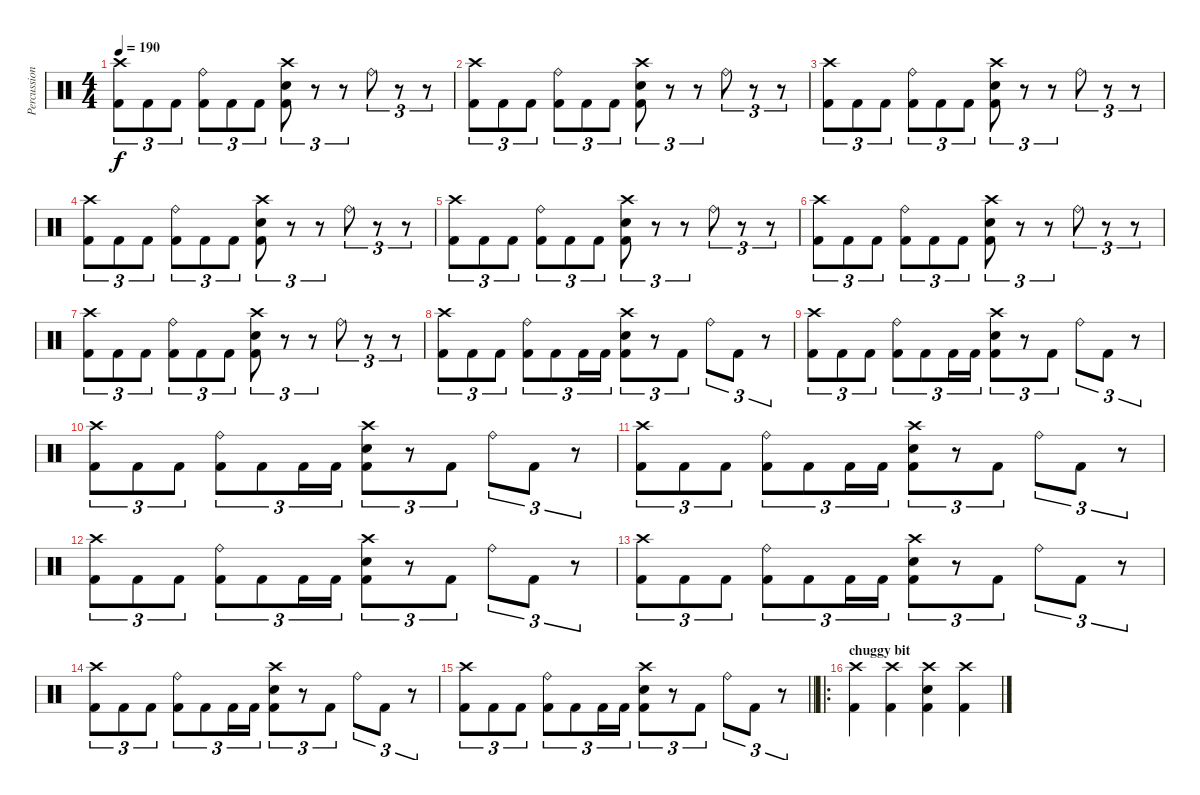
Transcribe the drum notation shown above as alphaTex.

\track ("Percussion" "Percussion") {instrument percussion}
\staff {score}
\articulation defaults
\ts (4 4)
\tempo 190
\clef neutral
\ks c
("Crash high (hit)" "Kick (hit) 2").8{tu (3 2) dy f} "Kick (hit) 2".8{tu (3 2)} "Kick (hit) 2".8{tu (3 2)} ("Ride (bell)" "Kick (hit) 2").8{tu (3 2)} "Kick (hit) 2".8{tu (3 2)} "Kick (hit) 2".8{tu (3 2)} ("Crash high (hit)" "Electric Snare (hit)" "Kick (hit) 2").8{tu (3 2)} r.8{tu (3 2)} r.8{tu (3 2)} "Ride (bell)".8{tu (3 2)} r.8{tu (3 2)} r.8{tu (3 2)} |
("Crash high (hit)" "Kick (hit) 2").8{tu (3 2)} "Kick (hit) 2".8{tu (3 2)} "Kick (hit) 2".8{tu (3 2)} ("Ride (bell)" "Kick (hit) 2").8{tu (3 2)} "Kick (hit) 2".8{tu (3 2)} "Kick (hit) 2".8{tu (3 2)} ("Crash high (hit)" "Electric Snare (hit)" "Kick (hit) 2").8{tu (3 2)} r.8{tu (3 2)} r.8{tu (3 2)} "Ride (bell)".8{tu (3 2)} r.8{tu (3 2)} r.8{tu (3 2)} |
("Crash high (hit)" "Kick (hit) 2").8{tu (3 2)} "Kick (hit) 2".8{tu (3 2)} "Kick (hit) 2".8{tu (3 2)} ("Ride (bell)" "Kick (hit) 2").8{tu (3 2)} "Kick (hit) 2".8{tu (3 2)} "Kick (hit) 2".8{tu (3 2)} ("Crash high (hit)" "Electric Snare (hit)" "Kick (hit) 2").8{tu (3 2)} r.8{tu (3 2)} r.8{tu (3 2)} "Ride (bell)".8{tu (3 2)} r.8{tu (3 2)} r.8{tu (3 2)} |
("Crash high (hit)" "Kick (hit) 2").8{tu (3 2)} "Kick (hit) 2".8{tu (3 2)} "Kick (hit) 2".8{tu (3 2)} ("Ride (bell)" "Kick (hit) 2").8{tu (3 2)} "Kick (hit) 2".8{tu (3 2)} "Kick (hit) 2".8{tu (3 2)} ("Crash high (hit)" "Electric Snare (hit)" "Kick (hit) 2").8{tu (3 2)} r.8{tu (3 2)} r.8{tu (3 2)} "Ride (bell)".8{tu (3 2)} r.8{tu (3 2)} r.8{tu (3 2)} |
("Crash high (hit)" "Kick (hit) 2").8{tu (3 2)} "Kick (hit) 2".8{tu (3 2)} "Kick (hit) 2".8{tu (3 2)} ("Ride (bell)" "Kick (hit) 2").8{tu (3 2)} "Kick (hit) 2".8{tu (3 2)} "Kick (hit) 2".8{tu (3 2)} ("Crash high (hit)" "Electric Snare (hit)" "Kick (hit) 2").8{tu (3 2)} r.8{tu (3 2)} r.8{tu (3 2)} "Ride (bell)".8{tu (3 2)} r.8{tu (3 2)} r.8{tu (3 2)} |
("Crash high (hit)" "Kick (hit) 2").8{tu (3 2)} "Kick (hit) 2".8{tu (3 2)} "Kick (hit) 2".8{tu (3 2)} ("Ride (bell)" "Kick (hit) 2").8{tu (3 2)} "Kick (hit) 2".8{tu (3 2)} "Kick (hit) 2".8{tu (3 2)} ("Crash high (hit)" "Electric Snare (hit)" "Kick (hit) 2").8{tu (3 2)} r.8{tu (3 2)} r.8{tu (3 2)} "Ride (bell)".8{tu (3 2)} r.8{tu (3 2)} r.8{tu (3 2)} |
("Crash high (hit)" "Kick (hit) 2").8{tu (3 2)} "Kick (hit) 2".8{tu (3 2)} "Kick (hit) 2".8{tu (3 2)} ("Ride (bell)" "Kick (hit) 2").8{tu (3 2)} "Kick (hit) 2".8{tu (3 2)} "Kick (hit) 2".8{tu (3 2)} ("Crash high (hit)" "Electric Snare (hit)" "Kick (hit) 2").8{tu (3 2)} r.8{tu (3 2)} r.8{tu (3 2)} "Ride (bell)".8{tu (3 2)} r.8{tu (3 2)} r.8{tu (3 2)} |
("Crash high (hit)" "Kick (hit) 2").8{tu (3 2)} "Kick (hit) 2".8{tu (3 2)} "Kick (hit) 2".8{tu (3 2)} ("Ride (bell)" "Kick (hit) 2").8{tu (3 2)} "Kick (hit) 2".8{tu (3 2)} "Kick (hit) 2".16{tu (3 2)} "Kick (hit) 2".16{tu (3 2)} ("Crash high (hit)" "Electric Snare (hit)" "Kick (hit) 2").8{tu (3 2)} r.8{tu (3 2)} "Kick (hit) 2".8{tu (3 2)} "Ride (bell)".8{tu (3 2)} "Kick (hit) 2".8{tu (3 2)} r.8{tu (3 2)} |
("Crash high (hit)" "Kick (hit) 2").8{tu (3 2)} "Kick (hit) 2".8{tu (3 2)} "Kick (hit) 2".8{tu (3 2)} ("Ride (bell)" "Kick (hit) 2").8{tu (3 2)} "Kick (hit) 2".8{tu (3 2)} "Kick (hit) 2".16{tu (3 2)} "Kick (hit) 2".16{tu (3 2)} ("Crash high (hit)" "Electric Snare (hit)" "Kick (hit) 2").8{tu (3 2)} r.8{tu (3 2)} "Kick (hit) 2".8{tu (3 2)} "Ride (bell)".8{tu (3 2)} "Kick (hit) 2".8{tu (3 2)} r.8{tu (3 2)} |
("Crash high (hit)" "Kick (hit) 2").8{tu (3 2)} "Kick (hit) 2".8{tu (3 2)} "Kick (hit) 2".8{tu (3 2)} ("Ride (bell)" "Kick (hit) 2").8{tu (3 2)} "Kick (hit) 2".8{tu (3 2)} "Kick (hit) 2".16{tu (3 2)} "Kick (hit) 2".16{tu (3 2)} ("Crash high (hit)" "Electric Snare (hit)" "Kick (hit) 2").8{tu (3 2)} r.8{tu (3 2)} "Kick (hit) 2".8{tu (3 2)} "Ride (bell)".8{tu (3 2)} "Kick (hit) 2".8{tu (3 2)} r.8{tu (3 2)} |
("Crash high (hit)" "Kick (hit) 2").8{tu (3 2)} "Kick (hit) 2".8{tu (3 2)} "Kick (hit) 2".8{tu (3 2)} ("Ride (bell)" "Kick (hit) 2").8{tu (3 2)} "Kick (hit) 2".8{tu (3 2)} "Kick (hit) 2".16{tu (3 2)} "Kick (hit) 2".16{tu (3 2)} ("Crash high (hit)" "Electric Snare (hit)" "Kick (hit) 2").8{tu (3 2)} r.8{tu (3 2)} "Kick (hit) 2".8{tu (3 2)} "Ride (bell)".8{tu (3 2)} "Kick (hit) 2".8{tu (3 2)} r.8{tu (3 2)} |
("Crash high (hit)" "Kick (hit) 2").8{tu (3 2)} "Kick (hit) 2".8{tu (3 2)} "Kick (hit) 2".8{tu (3 2)} ("Ride (bell)" "Kick (hit) 2").8{tu (3 2)} "Kick (hit) 2".8{tu (3 2)} "Kick (hit) 2".16{tu (3 2)} "Kick (hit) 2".16{tu (3 2)} ("Crash high (hit)" "Electric Snare (hit)" "Kick (hit) 2").8{tu (3 2)} r.8{tu (3 2)} "Kick (hit) 2".8{tu (3 2)} "Ride (bell)".8{tu (3 2)} "Kick (hit) 2".8{tu (3 2)} r.8{tu (3 2)} |
("Crash high (hit)" "Kick (hit) 2").8{tu (3 2)} "Kick (hit) 2".8{tu (3 2)} "Kick (hit) 2".8{tu (3 2)} ("Ride (bell)" "Kick (hit) 2").8{tu (3 2)} "Kick (hit) 2".8{tu (3 2)} "Kick (hit) 2".16{tu (3 2)} "Kick (hit) 2".16{tu (3 2)} ("Crash high (hit)" "Electric Snare (hit)" "Kick (hit) 2").8{tu (3 2)} r.8{tu (3 2)} "Kick (hit) 2".8{tu (3 2)} "Ride (bell)".8{tu (3 2)} "Kick (hit) 2".8{tu (3 2)} r.8{tu (3 2)} |
("Crash high (hit)" "Kick (hit) 2").8{tu (3 2)} "Kick (hit) 2".8{tu (3 2)} "Kick (hit) 2".8{tu (3 2)} ("Ride (bell)" "Kick (hit) 2").8{tu (3 2)} "Kick (hit) 2".8{tu (3 2)} "Kick (hit) 2".16{tu (3 2)} "Kick (hit) 2".16{tu (3 2)} ("Crash high (hit)" "Electric Snare (hit)" "Kick (hit) 2").8{tu (3 2)} r.8{tu (3 2)} "Kick (hit) 2".8{tu (3 2)} "Ride (bell)".8{tu (3 2)} "Kick (hit) 2".8{tu (3 2)} r.8{tu (3 2)} |
\barLineRight lightlight
("Crash high (hit)" "Kick (hit) 2").8{tu (3 2)} "Kick (hit) 2".8{tu (3 2)} "Kick (hit) 2".8{tu (3 2)} ("Ride (bell)" "Kick (hit) 2").8{tu (3 2)} "Kick (hit) 2".8{tu (3 2)} "Kick (hit) 2".16{tu (3 2)} "Kick (hit) 2".16{tu (3 2)} ("Crash high (hit)" "Electric Snare (hit)" "Kick (hit) 2").8{tu (3 2)} r.8{tu (3 2)} "Kick (hit) 2".8{tu (3 2)} "Ride (bell)".8{tu (3 2)} "Kick (hit) 2".8{tu (3 2)} r.8{tu (3 2)} |
\ro
\section ("" "chuggy bit")
("Crash high (hit)" "Kick (hit) 2").4 ("Crash high (hit)" "Kick (hit) 2").4 ("Crash high (hit)" "Electric Snare (hit)" "Kick (hit) 2").4 ("Crash high (hit)" "Kick (hit) 2").4
